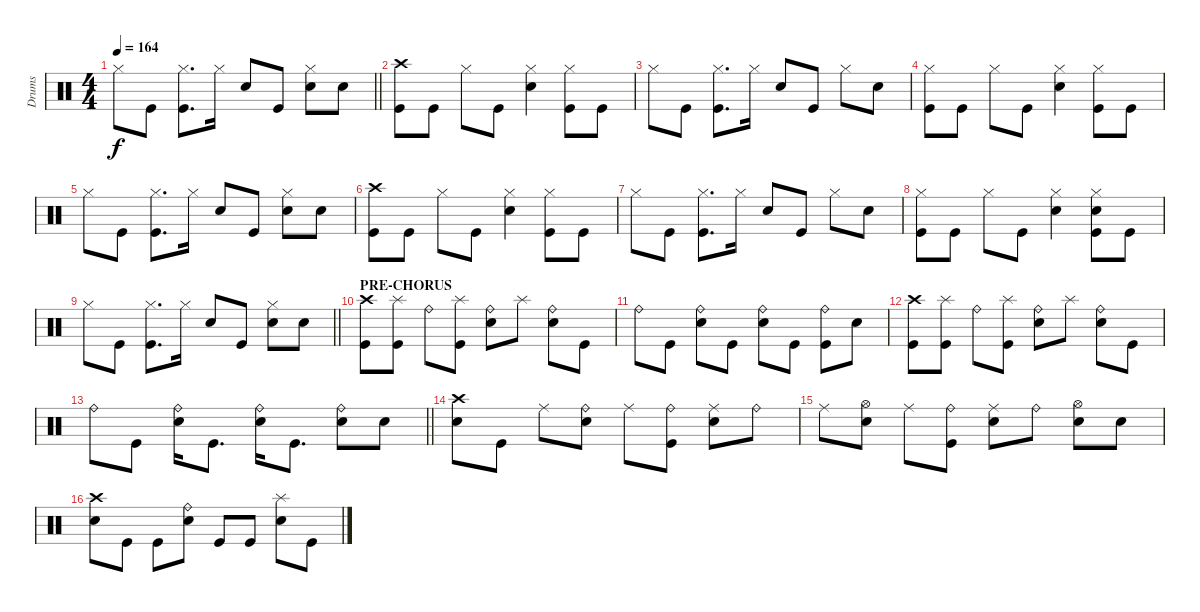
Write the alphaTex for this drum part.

\track ("Drums" "Drums") {instrument percussion}
\staff
\articulation defaults
\ts (4 4)
\tempo 164
\clef neutral
\barLineRight lightlight
\ks c "Hi-Hat (closed)".8{dy f} "Kick (hit)".8
("Hi-Hat (closed)" "Kick (hit)").8{d} "Hi-Hat (closed)".16 "Electric Snare (hit)".8 "Kick (hit)".8 ("Hi-Hat (closed)" "Electric Snare (hit)").8 "Electric Snare (hit)".8 |
("Crash high (hit)" "Kick (hit)").8 "Kick (hit)".8 "Hi-Hat (closed)".8 "Kick (hit)".8 ("Hi-Hat (closed)" "Electric Snare (hit)").4 ("Hi-Hat (closed)" "Kick (hit)").8 "Kick (hit)".8 |
"Hi-Hat (closed)".8 "Kick (hit)".8 ("Hi-Hat (closed)" "Kick (hit)").8{d} "Hi-Hat (closed)".16 "Electric Snare (hit)".8 "Kick (hit)".8 "Hi-Hat (closed)".8 "Electric Snare (hit)".8 |
("Hi-Hat (closed)" "Kick (hit)").8 "Kick (hit)".8 "Hi-Hat (closed)".8 "Kick (hit)".8 ("Hi-Hat (closed)" "Electric Snare (hit)").4 ("Hi-Hat (closed)" "Kick (hit)").8 "Kick (hit)".8 |
"Hi-Hat (closed)".8 "Kick (hit)".8 ("Hi-Hat (closed)" "Kick (hit)").8{d} "Hi-Hat (closed)".16 "Electric Snare (hit)".8 "Kick (hit)".8 ("Hi-Hat (closed)" "Electric Snare (hit)").8 "Electric Snare (hit)".8 |
("Crash high (hit)" "Kick (hit)").8 "Kick (hit)".8 "Hi-Hat (closed)".8 "Kick (hit)".8 ("Hi-Hat (closed)" "Electric Snare (hit)").4 ("Hi-Hat (closed)" "Kick (hit)").8 "Kick (hit)".8 |
"Hi-Hat (closed)".8 "Kick (hit)".8 ("Hi-Hat (closed)" "Kick (hit)").8{d} "Hi-Hat (closed)".16 "Electric Snare (hit)".8 "Kick (hit)".8 "Hi-Hat (closed)".8 "Electric Snare (hit)".8 |
("Hi-Hat (closed)" "Kick (hit)").8 "Kick (hit)".8 "Hi-Hat (closed)".8 "Kick (hit)".8 ("Hi-Hat (closed)" "Electric Snare (hit)").4 ("Hi-Hat (closed)" "Electric Snare (hit)" "Kick (hit)").8 "Kick (hit)".8 |
\barLineRight lightlight "Hi-Hat (closed)".8 "Kick (hit)".8
("Hi-Hat (closed)" "Kick (hit)").8{d} "Hi-Hat (closed)".16 "Electric Snare (hit)".8 "Kick (hit)".8 ("Hi-Hat (closed)" "Electric Snare (hit)").8 "Electric Snare (hit)".8 |
\section ("" "PRE-CHORUS")
("Crash high (hit)" "Kick (hit)").8 ("Splash (hit)" "Kick (hit)").8 "Ride (bell)".8 ("Splash (hit)" "Kick (hit)").8 ("Ride (bell)" "Electric Snare (hit)").8 "Splash (hit)".8 ("Ride (bell)" "Electric Snare (hit)").8 "Kick (hit)".8 |
"Ride (bell)".8 "Kick (hit)".8 ("Ride (bell)" "Electric Snare (hit)").8 "Kick (hit)".8 ("Ride (bell)" "Electric Snare (hit)").8 "Kick (hit)".8 ("Ride (bell)" "Kick (hit)").8 "Electric Snare (hit)".8 |
("Crash high (hit)" "Kick (hit)").8 ("Splash (hit)" "Kick (hit)").8 "Ride (bell)".8 ("Splash (hit)" "Kick (hit)").8 ("Ride (bell)" "Electric Snare (hit)").8 "Splash (hit)".8 ("Ride (bell)" "Electric Snare (hit)").8 "Kick (hit)".8 |
\barLineRight lightlight "Ride (bell)".8 "Kick (hit)".8
("Ride (bell)" "Electric Snare (hit)").16 "Kick (hit)".8{d} ("Ride (bell)" "Electric Snare (hit)").16 "Kick (hit)".8{d} ("Ride (bell)" "Electric Snare (hit)").8 "Electric Snare (hit)".8 |
("Crash high (hit)" "Electric Snare (hit)").8 "Kick (hit)".8 "Ride (middle)".8 ("Ride (bell)" "Electric Snare (hit)").8 "Ride (middle)".8 ("Ride (bell)" "Kick (hit)").8 ("Ride (middle)" "Electric Snare (hit)").8 "Ride (bell)".8 |
"Ride (middle)".8 ("Hi-Hat (open)" "Electric Snare (hit)").8 "Ride (middle)".8 ("Ride (bell)" "Kick (hit)").8 ("Ride (middle)" "Electric Snare (hit)").8 "Ride (bell)".8 ("Hi-Hat (open)" "Electric Snare (hit)").8 "Electric Snare (hit)".8 |
("Crash high (hit)" "Electric Snare (hit)").8 "Kick (hit)".8 "Kick (hit)".8 ("Ride (bell)" "Electric Snare (hit)").8 "Kick (hit)".8 "Kick (hit)".8 ("Splash (hit)" "Electric Snare (hit)").8 "Kick (hit)".8
